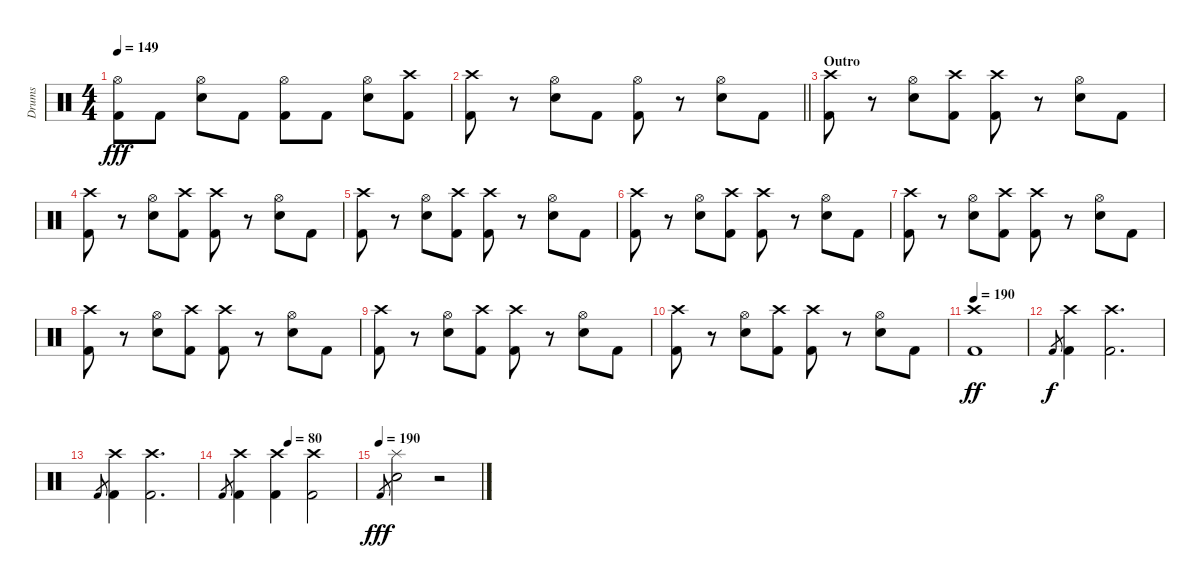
\track ("Drums" "Drums") {instrument percussion}
\staff {score}
\articulation defaults
\ts (4 4)
\tempo 149
\clef neutral
\ks c
("Hi-Hat (open)" "Kick (hit) 2").8{dy fff} "Kick (hit) 2".8 ("Hi-Hat (open)" "Snare (hit) 2").8 "Kick (hit) 2".8 ("Hi-Hat (open)" "Kick (hit) 2").8 "Kick (hit) 2".8 ("Hi-Hat (open)" "Snare (hit) 2").8 ("Crash high (hit)" "Kick (hit) 2").8 |
\barLineRight lightlight
("Crash high (hit)" "Kick (hit) 2").8 r.8 ("Hi-Hat (open)" "Snare (hit) 2").8 "Kick (hit) 2".8 ("Hi-Hat (open)" "Kick (hit) 2").8 r.8 ("Hi-Hat (open)" "Snare (hit) 2").8 "Kick (hit) 2".8 |
\section ("" "Outro")
("Crash high (hit)" "Kick (hit) 2").8 r.8 ("Hi-Hat (open)" "Snare (hit) 2").8 ("Crash high (hit)" "Kick (hit) 2").8 ("Crash high (hit)" "Kick (hit) 2").8 r.8 ("Hi-Hat (open)" "Snare (hit) 2").8 "Kick (hit) 2".8 |
("Crash high (hit)" "Kick (hit) 2").8 r.8 ("Hi-Hat (open)" "Snare (hit) 2").8 ("Crash high (hit)" "Kick (hit) 2").8 ("Crash high (hit)" "Kick (hit) 2").8 r.8 ("Hi-Hat (open)" "Snare (hit) 2").8 "Kick (hit) 2".8 |
("Crash high (hit)" "Kick (hit) 2").8 r.8 ("Hi-Hat (open)" "Snare (hit) 2").8 ("Crash high (hit)" "Kick (hit) 2").8 ("Crash high (hit)" "Kick (hit) 2").8 r.8 ("Hi-Hat (open)" "Snare (hit) 2").8 "Kick (hit) 2".8 |
("Crash high (hit)" "Kick (hit) 2").8 r.8 ("Hi-Hat (open)" "Snare (hit) 2").8 ("Crash high (hit)" "Kick (hit) 2").8 ("Crash high (hit)" "Kick (hit) 2").8 r.8 ("Hi-Hat (open)" "Snare (hit) 2").8 "Kick (hit) 2".8 |
("Crash high (hit)" "Kick (hit) 2").8 r.8 ("Hi-Hat (open)" "Snare (hit) 2").8 ("Crash high (hit)" "Kick (hit) 2").8 ("Crash high (hit)" "Kick (hit) 2").8 r.8 ("Hi-Hat (open)" "Snare (hit) 2").8 "Kick (hit) 2".8 |
("Crash high (hit)" "Kick (hit) 2").8 r.8 ("Hi-Hat (open)" "Snare (hit) 2").8 ("Crash high (hit)" "Kick (hit) 2").8 ("Crash high (hit)" "Kick (hit) 2").8 r.8 ("Hi-Hat (open)" "Snare (hit) 2").8 "Kick (hit) 2".8 |
("Crash high (hit)" "Kick (hit) 2").8 r.8 ("Hi-Hat (open)" "Snare (hit) 2").8 ("Crash high (hit)" "Kick (hit) 2").8 ("Crash high (hit)" "Kick (hit) 2").8 r.8 ("Hi-Hat (open)" "Snare (hit) 2").8 "Kick (hit) 2".8 |
("Crash high (hit)" "Kick (hit) 2").8 r.8 ("Hi-Hat (open)" "Snare (hit) 2").8 ("Crash high (hit)" "Kick (hit) 2").8 ("Crash high (hit)" "Kick (hit) 2").8 r.8 ("Hi-Hat (open)" "Snare (hit) 2").8 "Kick (hit) 2".8 |
\tempo 190
("Crash high (hit)" "Kick (hit) 2").1{dy ff} |
"Kick (hit) 2".8{gr dy f} ("Crash high (hit)" "Kick (hit) 2").4 ("Crash high (hit)" "Kick (hit) 2").2{d} |
"Kick (hit) 2".8{gr} ("Crash high (hit)" "Kick (hit) 2").4 ("Crash high (hit)" "Kick (hit) 2").2{d} |
\tempo (80 0.5)
"Kick (hit) 2".8{gr} ("Crash high (hit)" "Kick (hit) 2").4 ("Crash high (hit)" "Kick (hit) 2").4 ("Crash high (hit)" "Kick (hit) 2").2 |
\tempo (190)
"Kick (hit) 2".8{gr dy fff} ("Splash (hit)" "Snare (hit) 2").2 r.2
